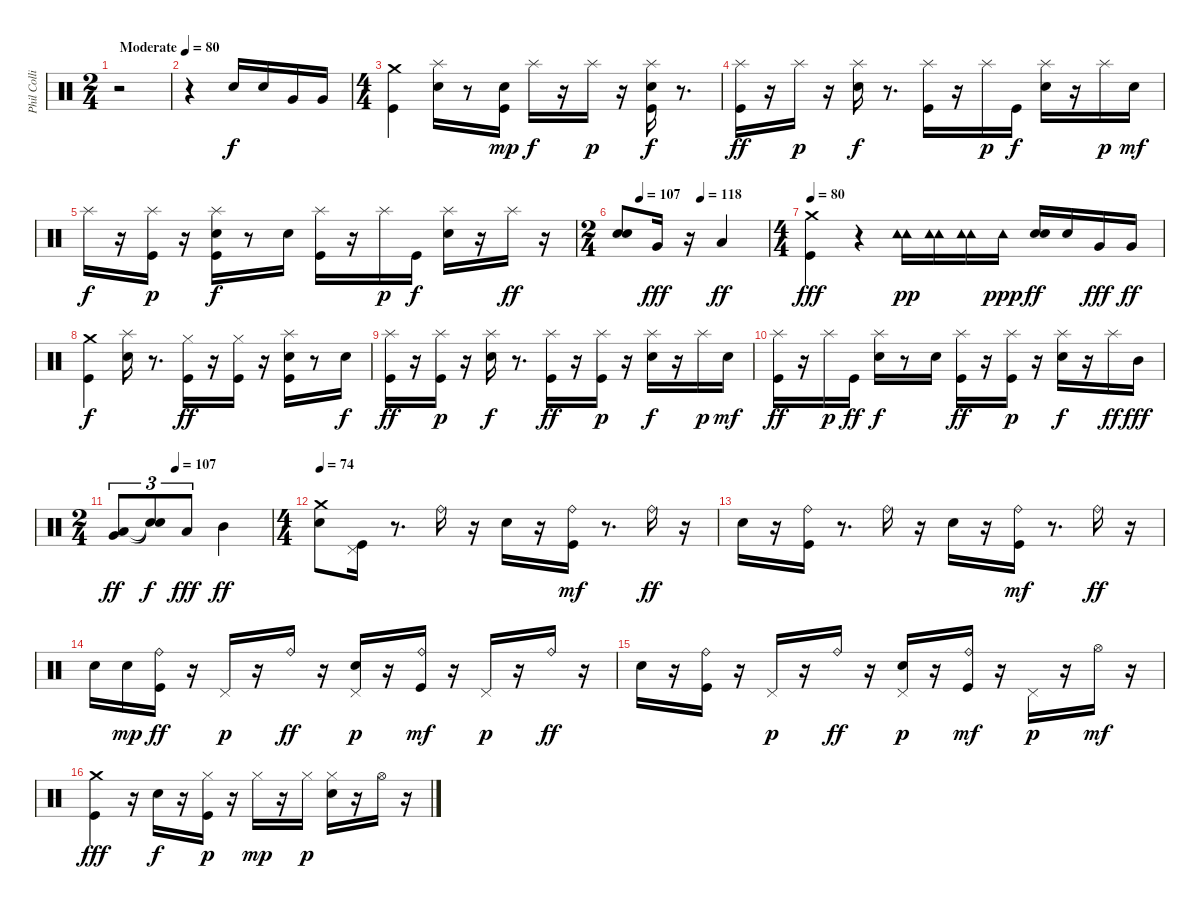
\track ("Phil Collins" "Phil Colli") {instrument percussion}
\staff {score}
\articulation defaults
\ts (2 4)
\tempo (80 "Moderate")
\clef neutral
\ks c
r.2{dy f} |
r.4 "Snare (hit) 2".16 "Snare (hit) 2".16 "Very Low Tom (hit)".16 "Very Low Tom (hit)".16 |
\ts (4 4)
("Crash medium (hit)" "Kick (hit)").4 ("Snare (hit) 2" "Splash (hit)").16 r.8 ("Kick (hit)" "Snare (hit) 2").16{dy mp} "Splash (hit)".16{dy f} r.16 "Splash (hit)".16{dy p} r.16 ("Kick (hit)" "Snare (hit) 2" "Splash (hit)").16{dy f} r.8{d} |
("Kick (hit)" "Splash (hit)").16{dy ff} r.16 "Splash (hit)".16{dy p} r.16 ("Snare (hit) 2" "Splash (hit)").16{dy f} r.8{d} ("Kick (hit)" "Splash (hit)").16 r.16 "Splash (hit)".16{dy p} "Kick (hit)".16{dy f} ("Snare (hit) 2" "Splash (hit)").16 r.16 "Splash (hit)".16{dy p} "Snare (hit) 2".16{dy mf} |
"Splash (hit)".16{dy f} r.16 ("Kick (hit)" "Splash (hit)").16{dy p} r.16 ("Kick (hit)" "Snare (hit) 2" "Splash (hit)").16{dy f} r.8 "Snare (hit) 2".16 ("Kick (hit)" "Splash (hit)").16 r.16 "Splash (hit)".16{dy p} "Kick (hit)".16{dy f} ("Snare (hit) 2" "Splash (hit)").16 r.16 "Splash (hit)".16{dy ff} r.16 |
\ts (2 4)
\tempo (107 0.125)
\tempo (118 0.5416666666666666)
("Snare (hit) 2" "Electric Snare (hit)").8 "Very Low Tom (hit)".16{dy fff} r.16 "Low Floor Tom (hit)".4{dy ff} |
\ts (4 4)
\tempo 80
("Crash medium (hit)" "Kick (hit)").4{dy fff} r.4 ("Tambourine (hit)" "Tambourine (hit)").16{dy pp} ("Tambourine (hit)" "Tambourine (hit)").16 ("Tambourine (hit)" "Tambourine (hit)").16 "Tambourine (hit)".16{dy ppp} ("Snare (hit) 2" "Electric Snare (hit)").16{dy ff} "Snare (hit) 2".16 "Very Low Tom (hit)".16{dy fff} "Very Low Tom (hit)".16{dy ff} |
("Crash medium (hit)" "Kick (hit)").4{dy f} ("Snare (hit) 2" "Splash (hit)").16 r.8{d} ("Kick (hit)" "Hi-Hat (closed)").16{dy ff} r.16 ("Kick (hit)" "Hi-Hat (closed)").16 r.16 ("Kick (hit)" "Snare (hit) 2" "Splash (hit)").16 r.8 "Snare (hit) 2".16{dy f} |
("Kick (hit)" "Splash (hit)").16{dy ff} r.16 ("Kick (hit)" "Splash (hit)").16{dy p} r.16 ("Snare (hit) 2" "Splash (hit)").16{dy f} r.8{d} ("Kick (hit)" "Splash (hit)").16{dy ff} r.16 ("Kick (hit)" "Splash (hit)").16{dy p} r.16 ("Snare (hit) 2" "Splash (hit)").16{dy f} r.16 "Splash (hit)".16{dy p} "Snare (hit) 2".16{dy mf} |
("Kick (hit)" "Splash (hit)").16{dy ff} r.16 "Splash (hit)".16{dy p} "Kick (hit)".16{dy ff} ("Snare (hit) 2" "Splash (hit)").16{dy f} r.8 "Snare (hit) 2".16 ("Kick (hit)" "Splash (hit)").16{dy ff} r.16 ("Kick (hit)" "Splash (hit)").16{dy p} r.16 ("Snare (hit) 2" "Splash (hit)").16{dy f} r.16 "Splash (hit)".16{dy ff} "Mid Tom (hit)".16{dy fff} |
\ts (2 4)
\tempo (107 0.375)
("Low Tom (hit)" "Very Low Tom (hit)").8{tu (3 2) dy ff} ("Snare (hit)"{t} "Snare (hit)"{t}).8{tu (3 2) dy f} "Low Tom (hit)".8{tu (3 2) dy fff} "Mid Tom (hit)".4{dy ff} |
\ts (4 4)
\tempo 74
("Crash medium (hit)" "Snare (hit) 2").8 ("Kick (hit)" "Pedal Hi-Hat (hit)").16 r.8{d} "Ride (bell)".16 r.16 "Snare (hit) 2".16 r.16 ("Kick (hit)" "Ride (bell)").16{dy mf} r.8{d} "Ride (bell)".16{dy ff} r.16 |
"Snare (hit) 2".16 r.16 ("Kick (hit)" "Ride (bell)").16 r.8{d} "Ride (bell)".16 r.16 "Snare (hit) 2".16 r.16 ("Kick (hit)" "Ride (bell)").16{dy mf} r.8{d} "Ride (bell)".16{dy ff} r.16 |
"Snare (hit) 2".16 "Snare (hit) 2".16{dy mp} ("Kick (hit)" "Ride (bell)").16{dy ff} r.16 "Pedal Hi-Hat (hit)".16{dy p} r.16 "Ride (bell)".16{dy ff} r.16 ("Snare (hit) 2" "Pedal Hi-Hat (hit)").16{dy p} r.16 ("Kick (hit)" "Ride (bell)").16{dy mf} r.16 "Pedal Hi-Hat (hit)".16{dy p} r.16 "Ride (bell)".16{dy ff} r.16 |
"Snare (hit) 2".16 r.16 ("Kick (hit)" "Ride (bell)").16 r.16 "Pedal Hi-Hat (hit)".16{dy p} r.16 "Ride (bell)".16{dy ff} r.16 ("Snare (hit) 2" "Pedal Hi-Hat (hit)").16{dy p} r.16 ("Kick (hit)" "Ride (bell)").16{dy mf} r.16 "Pedal Hi-Hat (hit)".16{dy p} r.16 "Hi-Hat (open)".16{dy mf} r.16 |
("Crash medium (hit)" "Kick (hit)").4{dy fff} r.16 "Snare (hit) 2".16{dy f} r.16 ("Kick (hit)" "Hi-Hat (closed)").16{dy p} r.16 "Hi-Hat (closed)".16{dy mp} r.16 "Hi-Hat (closed)".16{dy p} ("Snare (hit) 2" "Hi-Hat (closed)").16 r.16 "Hi-Hat (open)".16 r.16
